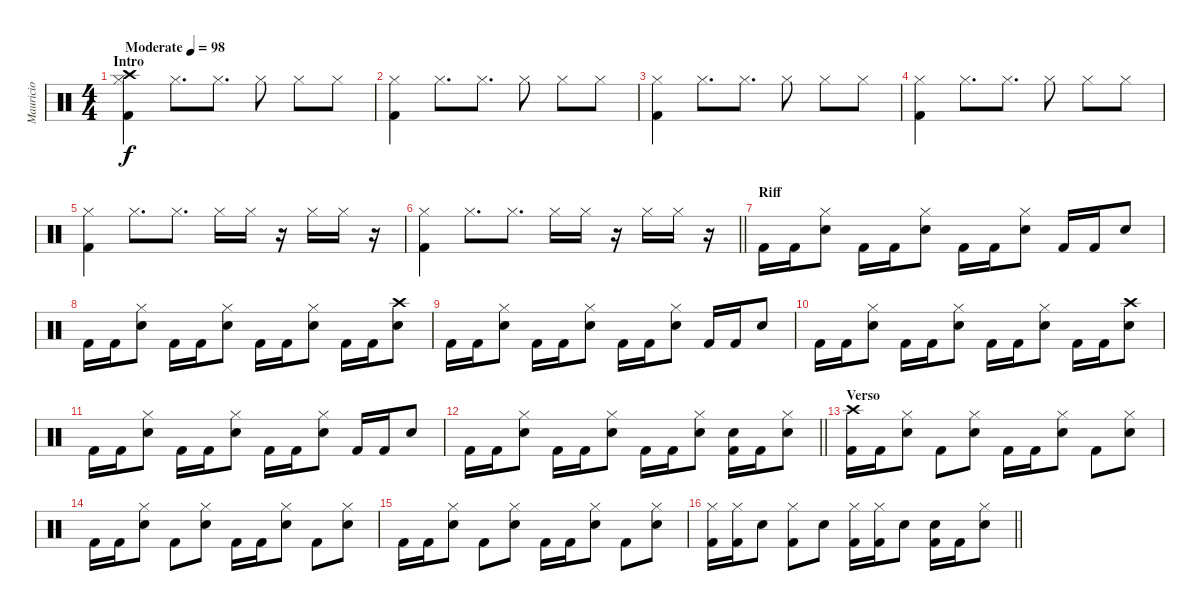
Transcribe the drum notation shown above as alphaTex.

\track ("Mauricio" "Mauricio") {instrument percussion}
\staff {score}
\articulation defaults
\ts (4 4)
\section ("" "Intro")
\tempo (98 "Moderate")
\clef neutral
\ks c
("Hi-Hat (closed)" "Crash high (hit)" "Kick (hit) 2").4{dy f} "Hi-Hat (closed)".8{d} "Hi-Hat (closed)".8{d} "Hi-Hat (closed)".8 "Hi-Hat (closed)".8 "Hi-Hat (closed)".8 |
("Hi-Hat (closed)" "Kick (hit) 2").4 "Hi-Hat (closed)".8{d} "Hi-Hat (closed)".8{d} "Hi-Hat (closed)".8 "Hi-Hat (closed)".8 "Hi-Hat (closed)".8 |
("Hi-Hat (closed)" "Kick (hit) 2").4 "Hi-Hat (closed)".8{d} "Hi-Hat (closed)".8{d} "Hi-Hat (closed)".8 "Hi-Hat (closed)".8 "Hi-Hat (closed)".8 |
("Hi-Hat (closed)" "Kick (hit) 2").4 "Hi-Hat (closed)".8{d} "Hi-Hat (closed)".8{d} "Hi-Hat (closed)".8 "Hi-Hat (closed)".8 "Hi-Hat (closed)".8 |
("Hi-Hat (closed)" "Kick (hit) 2").4 "Hi-Hat (closed)".8{d} "Hi-Hat (closed)".8{d} "Hi-Hat (closed)".16 "Hi-Hat (closed)".16 r.16 "Hi-Hat (closed)".16 "Hi-Hat (closed)".16 r.16 |
\barLineRight lightlight
("Hi-Hat (closed)" "Kick (hit) 2").4 "Hi-Hat (closed)".8{d} "Hi-Hat (closed)".8{d} "Hi-Hat (closed)".16 "Hi-Hat (closed)".16 r.16 "Hi-Hat (closed)".16 "Hi-Hat (closed)".16 r.16 |
\section ("" "Riff")
"Kick (hit) 2".16 "Kick (hit) 2".16 ("Hi-Hat (closed)" "Electric Snare (hit)").8 "Kick (hit) 2".16 "Kick (hit) 2".16 ("Hi-Hat (closed)" "Electric Snare (hit)").8 "Kick (hit) 2".16 "Kick (hit) 2".16 ("Hi-Hat (closed)" "Electric Snare (hit)").8 "Kick (hit) 2".16 "Kick (hit) 2".16 "Electric Snare (hit)".8 |
"Kick (hit) 2".16 "Kick (hit) 2".16 ("Hi-Hat (closed)" "Electric Snare (hit)").8 "Kick (hit) 2".16 "Kick (hit) 2".16 ("Hi-Hat (closed)" "Electric Snare (hit)").8 "Kick (hit) 2".16 "Kick (hit) 2".16 ("Hi-Hat (closed)" "Electric Snare (hit)").8 "Kick (hit) 2".16 "Kick (hit) 2".16 ("Crash high (hit)" "Electric Snare (hit)").8 |
"Kick (hit) 2".16 "Kick (hit) 2".16 ("Hi-Hat (closed)" "Electric Snare (hit)").8 "Kick (hit) 2".16 "Kick (hit) 2".16 ("Hi-Hat (closed)" "Electric Snare (hit)").8 "Kick (hit) 2".16 "Kick (hit) 2".16 ("Hi-Hat (closed)" "Electric Snare (hit)").8 "Kick (hit) 2".16 "Kick (hit) 2".16 "Electric Snare (hit)".8 |
"Kick (hit) 2".16 "Kick (hit) 2".16 ("Hi-Hat (closed)" "Electric Snare (hit)").8 "Kick (hit) 2".16 "Kick (hit) 2".16 ("Hi-Hat (closed)" "Electric Snare (hit)").8 "Kick (hit) 2".16 "Kick (hit) 2".16 ("Hi-Hat (closed)" "Electric Snare (hit)").8 "Kick (hit) 2".16 "Kick (hit) 2".16 ("Crash high (hit)" "Electric Snare (hit)").8 |
"Kick (hit) 2".16 "Kick (hit) 2".16 ("Hi-Hat (closed)" "Electric Snare (hit)").8 "Kick (hit) 2".16 "Kick (hit) 2".16 ("Hi-Hat (closed)" "Electric Snare (hit)").8 "Kick (hit) 2".16 "Kick (hit) 2".16 ("Hi-Hat (closed)" "Electric Snare (hit)").8 "Kick (hit) 2".16 "Kick (hit) 2".16 "Electric Snare (hit)".8 |
\barLineRight lightlight "Kick (hit) 2".16 "Kick (hit) 2".16
("Hi-Hat (closed)" "Electric Snare (hit)").8 "Kick (hit) 2".16 "Kick (hit) 2".16 ("Hi-Hat (closed)" "Electric Snare (hit)").8 "Kick (hit) 2".16 "Kick (hit) 2".16 ("Hi-Hat (closed)" "Electric Snare (hit)").8 ("Electric Snare (hit)" "Kick (hit) 2").16 "Kick (hit) 2".16 ("Hi-Hat (closed)" "Electric Snare (hit)").8 |
\section ("" "Verso")
("Crash high (hit)" "Kick (hit) 2").16 "Kick (hit) 2".16 ("Hi-Hat (closed)" "Electric Snare (hit)").8 "Kick (hit) 2".8 ("Hi-Hat (closed)" "Electric Snare (hit)").8 "Kick (hit) 2".16 "Kick (hit) 2".16 ("Hi-Hat (closed)" "Electric Snare (hit)").8 "Kick (hit) 2".8 ("Hi-Hat (closed)" "Electric Snare (hit)").8 |
"Kick (hit) 2".16 "Kick (hit) 2".16 ("Hi-Hat (closed)" "Electric Snare (hit)").8 "Kick (hit) 2".8 ("Hi-Hat (closed)" "Electric Snare (hit)").8 "Kick (hit) 2".16 "Kick (hit) 2".16 ("Hi-Hat (closed)" "Electric Snare (hit)").8 "Kick (hit) 2".8 ("Hi-Hat (closed)" "Electric Snare (hit)").8 |
"Kick (hit) 2".16 "Kick (hit) 2".16 ("Hi-Hat (closed)" "Electric Snare (hit)").8 "Kick (hit) 2".8 ("Hi-Hat (closed)" "Electric Snare (hit)").8 "Kick (hit) 2".16 "Kick (hit) 2".16 ("Hi-Hat (closed)" "Electric Snare (hit)").8 "Kick (hit) 2".8 ("Hi-Hat (closed)" "Electric Snare (hit)").8 |
\barLineRight lightlight
("Hi-Hat (closed)" "Kick (hit) 2").16 ("Hi-Hat (closed)" "Kick (hit) 2").16 "Electric Snare (hit)".8 ("Hi-Hat (closed)" "Kick (hit) 2").8 "Electric Snare (hit)".8 ("Hi-Hat (closed)" "Kick (hit) 2").16 ("Hi-Hat (closed)" "Kick (hit) 2").16 "Electric Snare (hit)".8 ("Electric Snare (hit)" "Kick (hit) 2").16 "Kick (hit) 2".16 ("Hi-Hat (closed)" "Electric Snare (hit)").8
